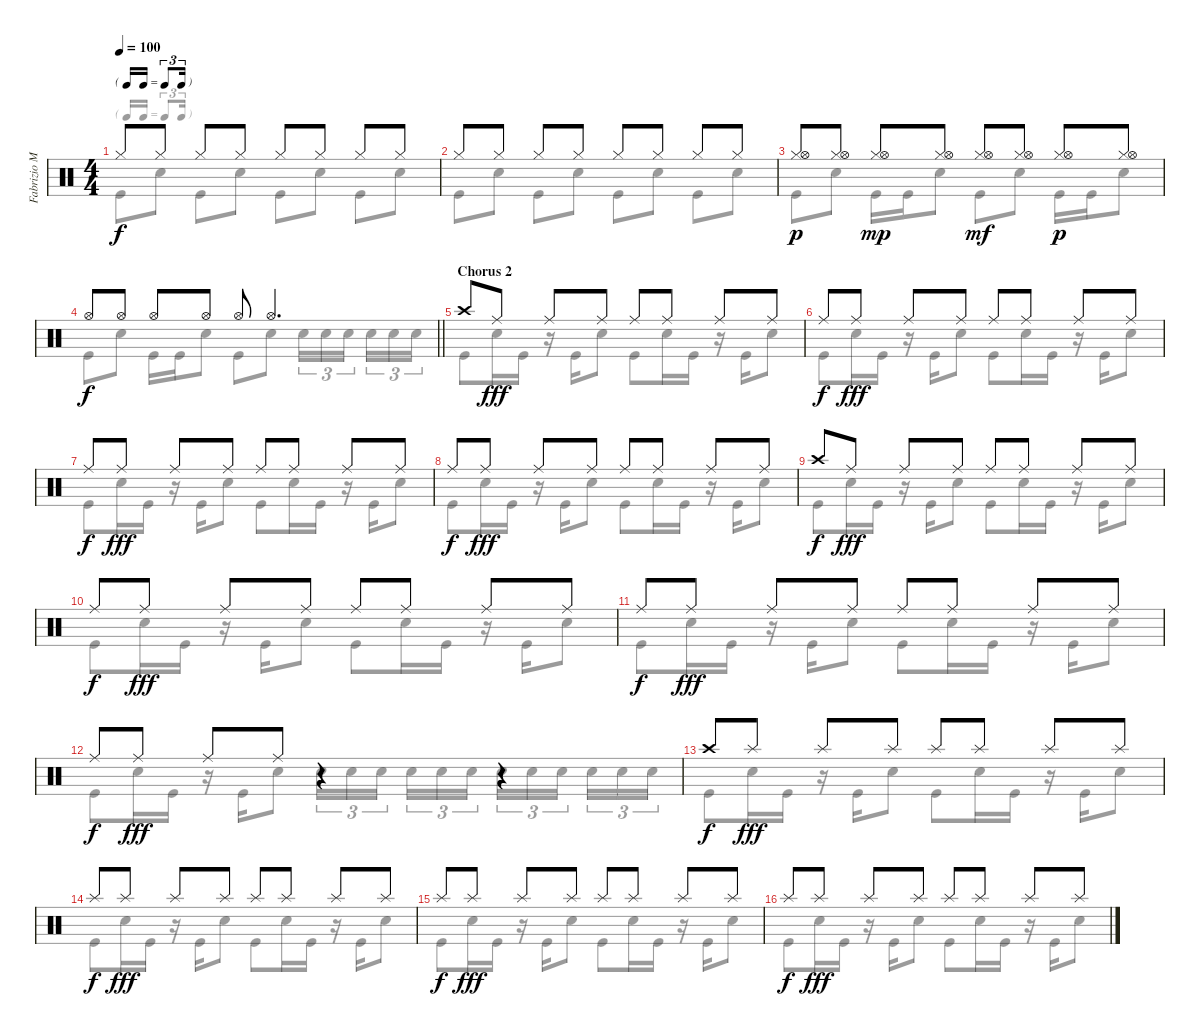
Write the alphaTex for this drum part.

\track ("Fabrizio Moretti (Drum)" "Fabrizio M") {instrument percussion}
\staff {score}
\articulation defaults
\voice
\ts (4 4)
\tf triplet16th
\tempo 100
\clef neutral
\ks c "Hi-Hat (closed)".8{dy f} "Hi-Hat (closed)".8 "Hi-Hat (closed)".8 "Hi-Hat (closed)".8 "Hi-Hat (closed)".8 "Hi-Hat (closed)".8 "Hi-Hat (closed)".8 "Hi-Hat (closed)".8
|
"Hi-Hat (closed)".8 "Hi-Hat (closed)".8 "Hi-Hat (closed)".8 "Hi-Hat (closed)".8 "Hi-Hat (closed)".8 "Hi-Hat (closed)".8 "Hi-Hat (closed)".8 "Hi-Hat (closed)".8 |
("Hi-Hat (closed)" "Hi-Hat (open)").8{dy p} ("Hi-Hat (closed)" "Hi-Hat (open)").8 ("Hi-Hat (closed)" "Hi-Hat (open)").8{dy mp} ("Hi-Hat (closed)" "Hi-Hat (open)").8 ("Hi-Hat (closed)" "Hi-Hat (open)").8{dy mf} ("Hi-Hat (closed)" "Hi-Hat (open)").8 ("Hi-Hat (closed)" "Hi-Hat (open)").8{dy p} ("Hi-Hat (closed)" "Hi-Hat (open)").8 |
\barLineRight lightlight "Hi-Hat (open)".8{dy f} "Hi-Hat (open)".8 "Hi-Hat (open)".8 "Hi-Hat (open)".8 "Hi-Hat (open)".8 "Hi-Hat (open)".4{d}
|
\section ("" "Chorus 2")
"Crash high (hit)".8 "Ride (middle)".8{dy fff} "Ride (middle)".8 "Ride (middle)".8 "Ride (middle)".8 "Ride (middle)".8 "Ride (middle)".8 "Ride (middle)".8 |
"Ride (middle)".8{dy f} "Ride (middle)".8{dy fff} "Ride (middle)".8 "Ride (middle)".8 "Ride (middle)".8 "Ride (middle)".8 "Ride (middle)".8 "Ride (middle)".8 |
"Ride (middle)".8{dy f} "Ride (middle)".8{dy fff} "Ride (middle)".8 "Ride (middle)".8 "Ride (middle)".8 "Ride (middle)".8 "Ride (middle)".8 "Ride (middle)".8 |
"Ride (middle)".8{dy f} "Ride (middle)".8{dy fff} "Ride (middle)".8 "Ride (middle)".8 "Ride (middle)".8 "Ride (middle)".8 "Ride (middle)".8 "Ride (middle)".8 |
"Crash high (hit)".8{dy f} "Ride (middle)".8{dy fff} "Ride (middle)".8 "Ride (middle)".8 "Ride (middle)".8 "Ride (middle)".8 "Ride (middle)".8 "Ride (middle)".8 |
"Ride (middle)".8{dy f} "Ride (middle)".8{dy fff} "Ride (middle)".8 "Ride (middle)".8 "Ride (middle)".8 "Ride (middle)".8 "Ride (middle)".8 "Ride (middle)".8 |
"Ride (middle)".8{dy f} "Ride (middle)".8{dy fff} "Ride (middle)".8 "Ride (middle)".8 "Ride (middle)".8 "Ride (middle)".8 "Ride (middle)".8 "Ride (middle)".8 |
"Ride (middle)".8{dy f} "Ride (middle)".8{dy fff} "Ride (middle)".8 "Ride (middle)".8 r.4 r.4 |
"Crash high (hit)".8{dy f} "Splash (hit)".8{dy fff} "Splash (hit)".8 "Splash (hit)".8 "Splash (hit)".8 "Splash (hit)".8 "Splash (hit)".8 "Splash (hit)".8 |
"Splash (hit)".8{dy f} "Splash (hit)".8{dy fff} "Splash (hit)".8 "Splash (hit)".8 "Splash (hit)".8 "Splash (hit)".8 "Splash (hit)".8 "Splash (hit)".8 |
"Splash (hit)".8{dy f} "Splash (hit)".8{dy fff} "Splash (hit)".8 "Splash (hit)".8 "Splash (hit)".8 "Splash (hit)".8 "Splash (hit)".8 "Splash (hit)".8 |
"Splash (hit)".8{dy f} "Splash (hit)".8{dy fff} "Splash (hit)".8 "Splash (hit)".8 "Splash (hit)".8 "Splash (hit)".8 "Splash (hit)".8 "Splash (hit)".8
\voice
\clef neutral
\ottava regular
\simile none
\ks c "Kick (hit)".8{dy f} "Snare (hit) 2".8 "Kick (hit)".8 "Snare (hit) 2".8 "Kick (hit)".8 "Snare (hit) 2".8 "Kick (hit)".8 "Snare (hit) 2".8
|
"Kick (hit)".8 "Snare (hit) 2".8 "Kick (hit)".8 "Snare (hit) 2".8 "Kick (hit)".8 "Snare (hit) 2".8 "Kick (hit)".8 "Snare (hit) 2".8 |
"Kick (hit)".8 "Snare (hit) 2".8 "Kick (hit)".16 "Kick (hit)".16 "Snare (hit) 2".8 "Kick (hit)".8 "Snare (hit) 2".8 "Kick (hit)".16 "Kick (hit)".16 "Snare (hit) 2".8 |
\barLineRight lightlight "Kick (hit)".8 "Snare (hit) 2".8 "Kick (hit)".16 "Kick (hit)".16 "Snare (hit) 2".8 "Kick (hit)".8 "Snare (hit) 2".8 "Snare (hit) 2".16{tu (3 2)} "Snare (hit) 2".16{tu (3 2)} "Snare (hit) 2".16{tu (3 2) beam splitsecondary} "Snare (hit) 2".16{tu (3 2)} "Snare (hit) 2".16{tu (3 2)} "Snare (hit) 2".16{tu (3 2)}
|
"Kick (hit)".8 "Snare (hit) 2".16 "Kick (hit)".16 r.16 "Kick (hit)".16 "Snare (hit) 2".8 "Kick (hit)".8 "Snare (hit) 2".16 "Kick (hit)".16 r.16 "Kick (hit)".16 "Snare (hit) 2".8 |
"Kick (hit)".8 "Snare (hit) 2".16 "Kick (hit)".16 r.16 "Kick (hit)".16 "Snare (hit) 2".8 "Kick (hit)".8 "Snare (hit) 2".16 "Kick (hit)".16 r.16 "Kick (hit)".16 "Snare (hit) 2".8 |
"Kick (hit)".8 "Snare (hit) 2".16 "Kick (hit)".16 r.16 "Kick (hit)".16 "Snare (hit) 2".8 "Kick (hit)".8 "Snare (hit) 2".16 "Kick (hit)".16 r.16 "Kick (hit)".16 "Snare (hit) 2".8 |
"Kick (hit)".8 "Snare (hit) 2".16 "Kick (hit)".16 r.16 "Kick (hit)".16 "Snare (hit) 2".8 "Kick (hit)".8 "Snare (hit) 2".16 "Kick (hit)".16 r.16 "Kick (hit)".16 "Snare (hit) 2".8 |
"Kick (hit)".8 "Snare (hit) 2".16 "Kick (hit)".16 r.16 "Kick (hit)".16 "Snare (hit) 2".8 "Kick (hit)".8 "Snare (hit) 2".16 "Kick (hit)".16 r.16 "Kick (hit)".16 "Snare (hit) 2".8 |
"Kick (hit)".8 "Snare (hit) 2".16 "Kick (hit)".16 r.16 "Kick (hit)".16 "Snare (hit) 2".8 "Kick (hit)".8 "Snare (hit) 2".16 "Kick (hit)".16 r.16 "Kick (hit)".16 "Snare (hit) 2".8 |
"Kick (hit)".8 "Snare (hit) 2".16 "Kick (hit)".16 r.16 "Kick (hit)".16 "Snare (hit) 2".8 "Kick (hit)".8 "Snare (hit) 2".16 "Kick (hit)".16 r.16 "Kick (hit)".16 "Snare (hit) 2".8 |
"Kick (hit)".8 "Snare (hit) 2".16 "Kick (hit)".16 r.16 "Kick (hit)".16 "Snare (hit) 2".8 "Snare (hit) 2".16{tu (3 2)} "Snare (hit) 2".16{tu (3 2)} "Snare (hit) 2".16{tu (3 2) beam splitsecondary} "Snare (hit) 2".16{tu (3 2)} "Snare (hit) 2".16{tu (3 2)} "Snare (hit) 2".16{tu (3 2)} "Snare (hit) 2".16{tu (3 2)} "Snare (hit) 2".16{tu (3 2)} "Snare (hit) 2".16{tu (3 2) beam splitsecondary} "Snare (hit) 2".16{tu (3 2)} "Snare (hit) 2".16{tu (3 2)} "Snare (hit) 2".16{tu (3 2)} |
"Kick (hit)".8 "Snare (hit) 2".16 "Kick (hit)".16 r.16 "Kick (hit)".16 "Snare (hit) 2".8 "Kick (hit)".8 "Snare (hit) 2".16 "Kick (hit)".16 r.16 "Kick (hit)".16 "Snare (hit) 2".8 |
"Kick (hit)".8 "Snare (hit) 2".16 "Kick (hit)".16 r.16 "Kick (hit)".16 "Snare (hit) 2".8 "Kick (hit)".8 "Snare (hit) 2".16 "Kick (hit)".16 r.16 "Kick (hit)".16 "Snare (hit) 2".8 |
"Kick (hit)".8 "Snare (hit) 2".16 "Kick (hit)".16 r.16 "Kick (hit)".16 "Snare (hit) 2".8 "Kick (hit)".8 "Snare (hit) 2".16 "Kick (hit)".16 r.16 "Kick (hit)".16 "Snare (hit) 2".8 |
"Kick (hit)".8 "Snare (hit) 2".16 "Kick (hit)".16 r.16 "Kick (hit)".16 "Snare (hit) 2".8 "Kick (hit)".8 "Snare (hit) 2".16 "Kick (hit)".16 r.16 "Kick (hit)".16 "Snare (hit) 2".8
